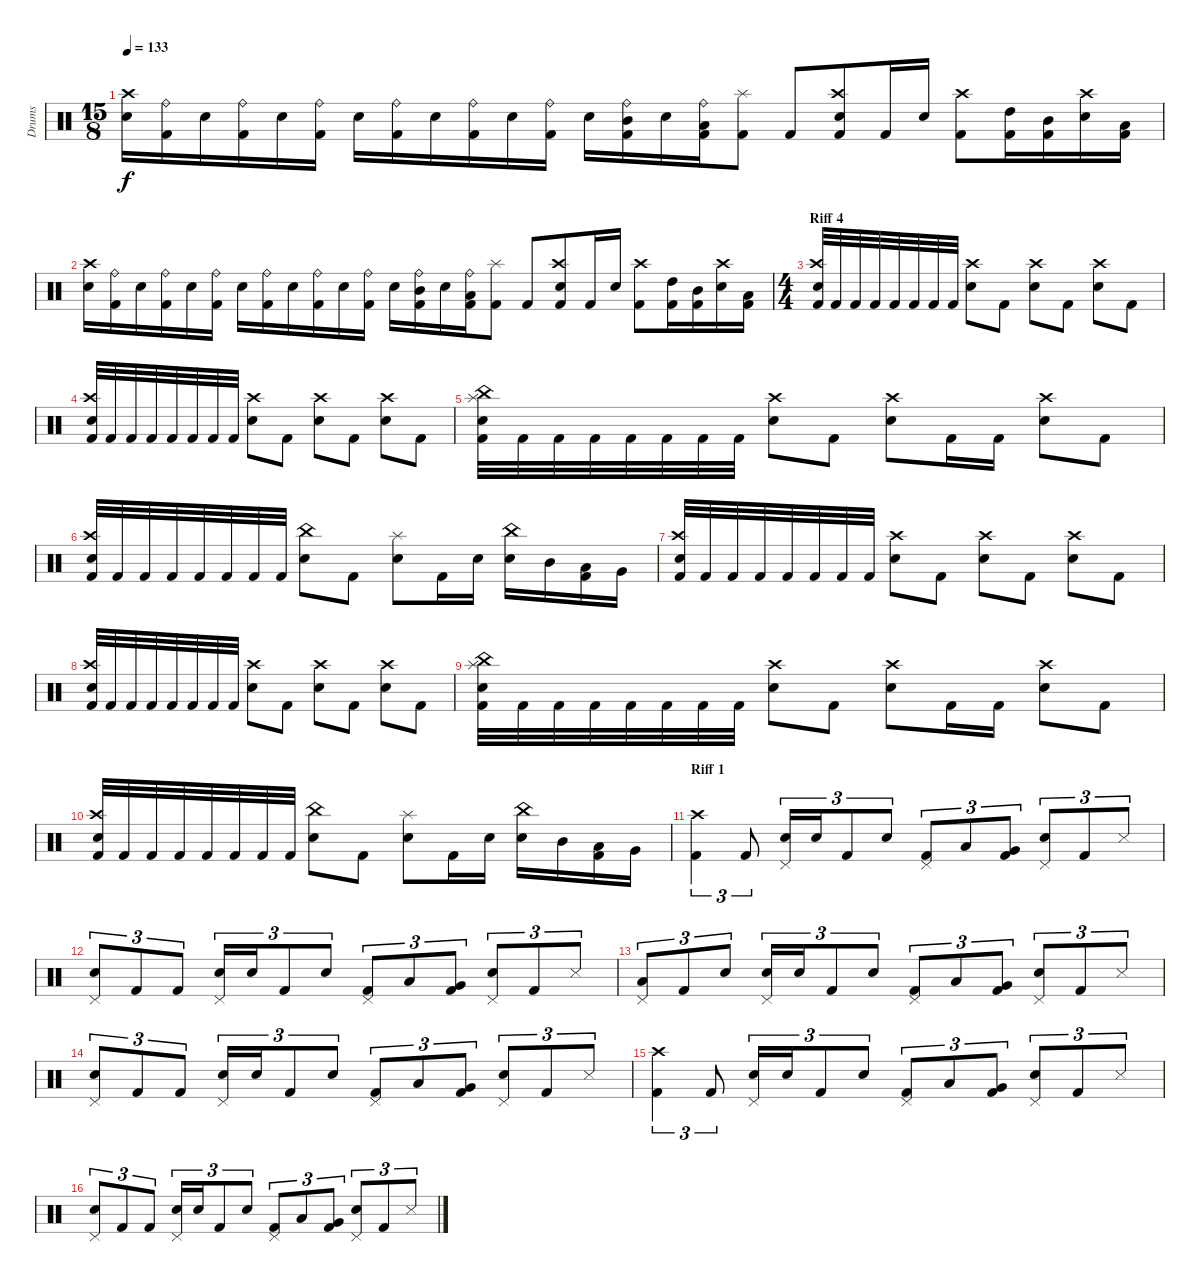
\track ("Drums" "Drums") {instrument percussion}
\staff {score}
\articulation defaults
\ts (15 8)
\tempo 133
\clef neutral
\ks c
("Snare (hit) 2" "Crash high (hit)").16{dy f} ("Kick (hit) 2" "Ride (bell)").16 "Snare (hit) 2".16 ("Kick (hit) 2" "Ride (bell)").16 "Snare (hit) 2".16 ("Kick (hit) 2" "Ride (bell)").16 "Snare (hit) 2".16 ("Kick (hit) 2" "Ride (bell)").16 "Snare (hit) 2".16 ("Kick (hit) 2" "Ride (bell)").16 "Snare (hit) 2".16 ("Kick (hit) 2" "Ride (bell)").16 "Snare (hit) 2".16 ("Kick (hit) 2" "Mid Tom (hit)" "Ride (bell)").16 "Snare (hit) 2".16 ("Kick (hit) 2" "Low Tom (hit)" "Ride (bell)").16 ("Kick (hit) 2" "Splash (hit)").8 "Kick (hit) 2".8 ("Kick (hit) 2" "Snare (hit) 2" "Crash high (hit)").8 "Kick (hit) 2".16 "Snare (hit) 2".16 ("Kick (hit) 2" "Crash high (hit)").8 ("Kick (hit) 2" "High Tom (hit)").16 ("Kick (hit) 2" "Mid Tom (hit)").16 ("Snare (hit) 2" "Crash high (hit)").16 ("Kick (hit) 2" "Low Tom (hit)").16 |
("Snare (hit) 2" "Crash high (hit)").16 ("Kick (hit) 2" "Ride (bell)").16 "Snare (hit) 2".16 ("Kick (hit) 2" "Ride (bell)").16 "Snare (hit) 2".16 ("Kick (hit) 2" "Ride (bell)").16 "Snare (hit) 2".16 ("Kick (hit) 2" "Ride (bell)").16 "Snare (hit) 2".16 ("Kick (hit) 2" "Ride (bell)").16 "Snare (hit) 2".16 ("Kick (hit) 2" "Ride (bell)").16 "Snare (hit) 2".16 ("Kick (hit) 2" "Mid Tom (hit)" "Ride (bell)").16 "Snare (hit) 2".16 ("Kick (hit) 2" "Low Tom (hit)" "Ride (bell)").16 ("Kick (hit) 2" "Splash (hit)").8 "Kick (hit) 2".8 ("Kick (hit) 2" "Snare (hit) 2" "Crash high (hit)").8 "Kick (hit) 2".16 "Snare (hit) 2".16 ("Kick (hit) 2" "Crash high (hit)").8 ("Kick (hit) 2" "High Tom (hit)").16 ("Kick (hit) 2" "Mid Tom (hit)").16 ("Snare (hit) 2" "Crash high (hit)").16 ("Kick (hit) 2" "Low Tom (hit)").16 |
\ts (4 4)
\section ("" "Riff 4")
("Kick (hit) 2" "Snare (hit) 2" "Crash high (hit)").32 "Kick (hit) 2".32 "Kick (hit) 2".32 "Kick (hit) 2".32 "Kick (hit) 2".32 "Kick (hit) 2".32 "Kick (hit) 2".32 "Kick (hit) 2".32 ("Snare (hit) 2" "Crash high (hit)").8 "Kick (hit) 2".8 ("Snare (hit) 2" "Crash high (hit)").8 "Kick (hit) 2".8 ("Snare (hit) 2" "Crash high (hit)").8 "Kick (hit) 2".8 |
("Kick (hit) 2" "Snare (hit) 2" "Crash high (hit)").32 "Kick (hit) 2".32 "Kick (hit) 2".32 "Kick (hit) 2".32 "Kick (hit) 2".32 "Kick (hit) 2".32 "Kick (hit) 2".32 "Kick (hit) 2".32 ("Snare (hit) 2" "Crash high (hit)").8 "Kick (hit) 2".8 ("Snare (hit) 2" "Crash high (hit)").8 "Kick (hit) 2".8 ("Snare (hit) 2" "Crash high (hit)").8 "Kick (hit) 2".8 |
("Kick (hit) 2" "Snare (hit) 2" "China (hit)" "Splash (hit)").32 "Kick (hit) 2".32 "Kick (hit) 2".32 "Kick (hit) 2".32 "Kick (hit) 2".32 "Kick (hit) 2".32 "Kick (hit) 2".32 "Kick (hit) 2".32 ("Snare (hit) 2" "Crash high (hit)").8 "Kick (hit) 2".8 ("Snare (hit) 2" "Crash high (hit)").8 "Kick (hit) 2".16 "Kick (hit) 2".16 ("Snare (hit) 2" "Crash high (hit)").8 "Kick (hit) 2".8 |
("Kick (hit) 2" "Snare (hit) 2" "Crash high (hit)").32 "Kick (hit) 2".32 "Kick (hit) 2".32 "Kick (hit) 2".32 "Kick (hit) 2".32 "Kick (hit) 2".32 "Kick (hit) 2".32 "Kick (hit) 2".32 ("Snare (hit) 2" "China (hit)").8 "Kick (hit) 2".8 ("Snare (hit) 2" "Splash (hit)").8 "Kick (hit) 2".16 "Snare (hit) 2".16 ("Snare (hit) 2" "China (hit)").16 "Mid Tom (hit)".16 ("Kick (hit) 2" "Low Tom (hit)").16 "Very Low Tom (hit)".16 |
("Kick (hit) 2" "Snare (hit) 2" "Crash high (hit)").32 "Kick (hit) 2".32 "Kick (hit) 2".32 "Kick (hit) 2".32 "Kick (hit) 2".32 "Kick (hit) 2".32 "Kick (hit) 2".32 "Kick (hit) 2".32 ("Snare (hit) 2" "Crash high (hit)").8 "Kick (hit) 2".8 ("Snare (hit) 2" "Crash high (hit)").8 "Kick (hit) 2".8 ("Snare (hit) 2" "Crash high (hit)").8 "Kick (hit) 2".8 |
("Kick (hit) 2" "Snare (hit) 2" "Crash high (hit)").32 "Kick (hit) 2".32 "Kick (hit) 2".32 "Kick (hit) 2".32 "Kick (hit) 2".32 "Kick (hit) 2".32 "Kick (hit) 2".32 "Kick (hit) 2".32 ("Snare (hit) 2" "Crash high (hit)").8 "Kick (hit) 2".8 ("Snare (hit) 2" "Crash high (hit)").8 "Kick (hit) 2".8 ("Snare (hit) 2" "Crash high (hit)").8 "Kick (hit) 2".8 |
("Kick (hit) 2" "Snare (hit) 2" "China (hit)" "Splash (hit)").32 "Kick (hit) 2".32 "Kick (hit) 2".32 "Kick (hit) 2".32 "Kick (hit) 2".32 "Kick (hit) 2".32 "Kick (hit) 2".32 "Kick (hit) 2".32 ("Snare (hit) 2" "Crash high (hit)").8 "Kick (hit) 2".8 ("Snare (hit) 2" "Crash high (hit)").8 "Kick (hit) 2".16 "Kick (hit) 2".16 ("Snare (hit) 2" "Crash high (hit)").8 "Kick (hit) 2".8 |
("Kick (hit) 2" "Snare (hit) 2" "Crash high (hit)").32 "Kick (hit) 2".32 "Kick (hit) 2".32 "Kick (hit) 2".32 "Kick (hit) 2".32 "Kick (hit) 2".32 "Kick (hit) 2".32 "Kick (hit) 2".32 ("Snare (hit) 2" "China (hit)").8 "Kick (hit) 2".8 ("Snare (hit) 2" "Splash (hit)").8 "Kick (hit) 2".16 "Snare (hit) 2".16 ("Snare (hit) 2" "China (hit)").16 "Mid Tom (hit)".16 ("Kick (hit) 2" "Low Tom (hit)").16 "Very Low Tom (hit)".16 |
\section ("" "Riff 1")
("Kick (hit) 2" "Crash high (hit)").4{tu (3 2)} "Kick (hit) 2".8{tu (3 2)} ("Snare (hit) 2" "Pedal Hi-Hat (hit)").16{tu (3 2)} "Snare (hit) 2".16{tu (3 2)} "Kick (hit) 2".8{tu (3 2)} "Snare (hit) 2".8{tu (3 2)} ("Kick (hit) 2" "Pedal Hi-Hat (hit)").8{tu (3 2)} "Low Tom (hit)".8{tu (3 2)} ("Kick (hit) 2" "Very Low Tom (hit)").8{tu (3 2)} ("Snare (hit) 2" "Pedal Hi-Hat (hit)").8{tu (3 2)} "Kick (hit) 2".8{tu (3 2)} "Snare (side stick) 3".8{tu (3 2)} |
("Snare (hit) 2" "Pedal Hi-Hat (hit)").8{tu (3 2)} "Kick (hit) 2".8{tu (3 2)} "Kick (hit) 2".8{tu (3 2)} ("Snare (hit) 2" "Pedal Hi-Hat (hit)").16{tu (3 2)} "Snare (hit) 2".16{tu (3 2)} "Kick (hit) 2".8{tu (3 2)} "Snare (hit) 2".8{tu (3 2)} ("Kick (hit) 2" "Pedal Hi-Hat (hit)").8{tu (3 2)} "Low Tom (hit)".8{tu (3 2)} ("Kick (hit) 2" "Very Low Tom (hit)").8{tu (3 2)} ("Snare (hit) 2" "Pedal Hi-Hat (hit)").8{tu (3 2)} "Kick (hit) 2".8{tu (3 2)} "Snare (side stick) 3".8{tu (3 2)} |
("Low Tom (hit)" "Pedal Hi-Hat (hit)").8{tu (3 2)} "Kick (hit) 2".8{tu (3 2)} "Snare (hit) 2".8{tu (3 2)} ("Snare (hit) 2" "Pedal Hi-Hat (hit)").16{tu (3 2)} "Snare (hit) 2".16{tu (3 2)} "Kick (hit) 2".8{tu (3 2)} "Snare (hit) 2".8{tu (3 2)} ("Kick (hit) 2" "Pedal Hi-Hat (hit)").8{tu (3 2)} "Low Tom (hit)".8{tu (3 2)} ("Kick (hit) 2" "Very Low Tom (hit)").8{tu (3 2)} ("Snare (hit) 2" "Pedal Hi-Hat (hit)").8{tu (3 2)} "Kick (hit) 2".8{tu (3 2)} "Snare (side stick) 3".8{tu (3 2)} |
("Snare (hit) 2" "Pedal Hi-Hat (hit)").8{tu (3 2)} "Kick (hit) 2".8{tu (3 2)} "Kick (hit) 2".8{tu (3 2)} ("Snare (hit) 2" "Pedal Hi-Hat (hit)").16{tu (3 2)} "Snare (hit) 2".16{tu (3 2)} "Kick (hit) 2".8{tu (3 2)} "Snare (hit) 2".8{tu (3 2)} ("Kick (hit) 2" "Pedal Hi-Hat (hit)").8{tu (3 2)} "Low Tom (hit)".8{tu (3 2)} ("Kick (hit) 2" "Very Low Tom (hit)").8{tu (3 2)} ("Snare (hit) 2" "Pedal Hi-Hat (hit)").8{tu (3 2)} "Kick (hit) 2".8{tu (3 2)} "Snare (side stick) 3".8{tu (3 2)} |
("Kick (hit) 2" "Crash high (hit)").4{tu (3 2)} "Kick (hit) 2".8{tu (3 2)} ("Snare (hit) 2" "Pedal Hi-Hat (hit)").16{tu (3 2)} "Snare (hit) 2".16{tu (3 2)} "Kick (hit) 2".8{tu (3 2)} "Snare (hit) 2".8{tu (3 2)} ("Kick (hit) 2" "Pedal Hi-Hat (hit)").8{tu (3 2)} "Low Tom (hit)".8{tu (3 2)} ("Kick (hit) 2" "Very Low Tom (hit)").8{tu (3 2)} ("Snare (hit) 2" "Pedal Hi-Hat (hit)").8{tu (3 2)} "Kick (hit) 2".8{tu (3 2)} "Snare (side stick) 3".8{tu (3 2)} |
("Snare (hit) 2" "Pedal Hi-Hat (hit)").8{tu (3 2)} "Kick (hit) 2".8{tu (3 2)} "Kick (hit) 2".8{tu (3 2)} ("Snare (hit) 2" "Pedal Hi-Hat (hit)").16{tu (3 2)} "Snare (hit) 2".16{tu (3 2)} "Kick (hit) 2".8{tu (3 2)} "Snare (hit) 2".8{tu (3 2)} ("Kick (hit) 2" "Pedal Hi-Hat (hit)").8{tu (3 2)} "Low Tom (hit)".8{tu (3 2)} ("Kick (hit) 2" "Very Low Tom (hit)").8{tu (3 2)} ("Snare (hit) 2" "Pedal Hi-Hat (hit)").8{tu (3 2)} "Kick (hit) 2".8{tu (3 2)} "Snare (side stick) 3".8{tu (3 2)}
